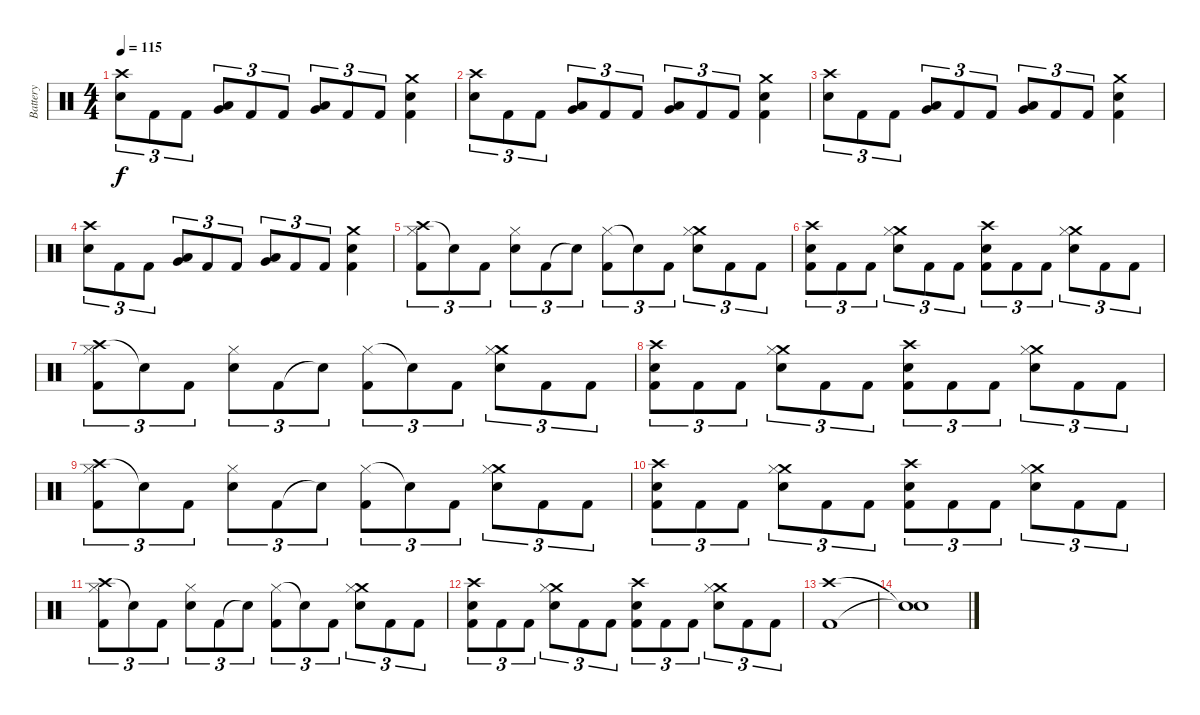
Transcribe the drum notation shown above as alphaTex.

\track ("Battery" "Battery") {instrument percussion}
\staff {score}
\articulation defaults
\ts (4 4)
\tempo 115
\clef neutral
\ks c
("Crash high (hit)" "Electric Snare (hit)").8{tu (3 2) dy f} "Kick (hit) 2".8{tu (3 2)} "Kick (hit) 2".8{tu (3 2)} ("Very Low Tom (hit)" "Low Tom (hit)").8{tu (3 2)} "Kick (hit) 2".8{tu (3 2)} "Kick (hit) 2".8{tu (3 2)} ("Very Low Tom (hit)" "Low Tom (hit)").8{tu (3 2)} "Kick (hit) 2".8{tu (3 2)} "Kick (hit) 2".8{tu (3 2)} ("Crash medium (hit)" "Electric Snare (hit)" "Kick (hit) 2").4 |
("Crash high (hit)" "Electric Snare (hit)").8{tu (3 2)} "Kick (hit) 2".8{tu (3 2)} "Kick (hit) 2".8{tu (3 2)} ("Very Low Tom (hit)" "Low Tom (hit)").8{tu (3 2)} "Kick (hit) 2".8{tu (3 2)} "Kick (hit) 2".8{tu (3 2)} ("Very Low Tom (hit)" "Low Tom (hit)").8{tu (3 2)} "Kick (hit) 2".8{tu (3 2)} "Kick (hit) 2".8{tu (3 2)} ("Crash medium (hit)" "Electric Snare (hit)" "Kick (hit) 2").4 |
("Crash high (hit)" "Electric Snare (hit)").8{tu (3 2)} "Kick (hit) 2".8{tu (3 2)} "Kick (hit) 2".8{tu (3 2)} ("Very Low Tom (hit)" "Low Tom (hit)").8{tu (3 2)} "Kick (hit) 2".8{tu (3 2)} "Kick (hit) 2".8{tu (3 2)} ("Very Low Tom (hit)" "Low Tom (hit)").8{tu (3 2)} "Kick (hit) 2".8{tu (3 2)} "Kick (hit) 2".8{tu (3 2)} ("Crash medium (hit)" "Electric Snare (hit)" "Kick (hit) 2").4 |
("Crash high (hit)" "Electric Snare (hit)").8{tu (3 2)} "Kick (hit) 2".8{tu (3 2)} "Kick (hit) 2".8{tu (3 2)} ("Very Low Tom (hit)" "Low Tom (hit)").8{tu (3 2)} "Kick (hit) 2".8{tu (3 2)} "Kick (hit) 2".8{tu (3 2)} ("Very Low Tom (hit)" "Low Tom (hit)").8{tu (3 2)} "Kick (hit) 2".8{tu (3 2)} "Kick (hit) 2".8{tu (3 2)} ("Crash medium (hit)" "Electric Snare (hit)" "Kick (hit) 2").4 |
("Crash high (hit)" "Hi-Hat (closed)" "Kick (hit) 2").8{tu (3 2)} "Snare (hit)"{t}.8{tu (3 2)} "Kick (hit) 2".8{tu (3 2)} ("Hi-Hat (closed)" "Electric Snare (hit)").8{tu (3 2)} "Kick (hit) 2".8{tu (3 2)} "Snare (hit)"{t}.8{tu (3 2)} ("Hi-Hat (closed)" "Kick (hit) 2").8{tu (3 2)} "Snare (hit)"{t}.8{tu (3 2)} "Kick (hit) 2".8{tu (3 2)} ("Crash medium (hit)" "Hi-Hat (closed)" "Electric Snare (hit)").8{tu (3 2)} "Kick (hit) 2".8{tu (3 2)} "Kick (hit) 2".8{tu (3 2)} |
("Crash high (hit)" "Electric Snare (hit)" "Kick (hit) 2").8{tu (3 2)} "Kick (hit) 2".8{tu (3 2)} "Kick (hit) 2".8{tu (3 2)} ("Crash medium (hit)" "Hi-Hat (closed)" "Electric Snare (hit)").8{tu (3 2)} "Kick (hit) 2".8{tu (3 2)} "Kick (hit) 2".8{tu (3 2)} ("Crash high (hit)" "Electric Snare (hit)" "Kick (hit) 2").8{tu (3 2)} "Kick (hit) 2".8{tu (3 2)} "Kick (hit) 2".8{tu (3 2)} ("Crash medium (hit)" "Hi-Hat (closed)" "Electric Snare (hit)").8{tu (3 2)} "Kick (hit) 2".8{tu (3 2)} "Kick (hit) 2".8{tu (3 2)} |
("Crash high (hit)" "Hi-Hat (closed)" "Kick (hit) 2").8{tu (3 2)} "Snare (hit)"{t}.8{tu (3 2)} "Kick (hit) 2".8{tu (3 2)} ("Hi-Hat (closed)" "Electric Snare (hit)").8{tu (3 2)} "Kick (hit) 2".8{tu (3 2)} "Snare (hit)"{t}.8{tu (3 2)} ("Hi-Hat (closed)" "Kick (hit) 2").8{tu (3 2)} "Snare (hit)"{t}.8{tu (3 2)} "Kick (hit) 2".8{tu (3 2)} ("Crash medium (hit)" "Hi-Hat (closed)" "Electric Snare (hit)").8{tu (3 2)} "Kick (hit) 2".8{tu (3 2)} "Kick (hit) 2".8{tu (3 2)} |
("Crash high (hit)" "Electric Snare (hit)" "Kick (hit) 2").8{tu (3 2)} "Kick (hit) 2".8{tu (3 2)} "Kick (hit) 2".8{tu (3 2)} ("Crash medium (hit)" "Hi-Hat (closed)" "Electric Snare (hit)").8{tu (3 2)} "Kick (hit) 2".8{tu (3 2)} "Kick (hit) 2".8{tu (3 2)} ("Crash high (hit)" "Electric Snare (hit)" "Kick (hit) 2").8{tu (3 2)} "Kick (hit) 2".8{tu (3 2)} "Kick (hit) 2".8{tu (3 2)} ("Crash medium (hit)" "Hi-Hat (closed)" "Electric Snare (hit)").8{tu (3 2)} "Kick (hit) 2".8{tu (3 2)} "Kick (hit) 2".8{tu (3 2)} |
("Crash high (hit)" "Hi-Hat (closed)" "Kick (hit) 2").8{tu (3 2)} "Snare (hit)"{t}.8{tu (3 2)} "Kick (hit) 2".8{tu (3 2)} ("Hi-Hat (closed)" "Electric Snare (hit)").8{tu (3 2)} "Kick (hit) 2".8{tu (3 2)} "Snare (hit)"{t}.8{tu (3 2)} ("Hi-Hat (closed)" "Kick (hit) 2").8{tu (3 2)} "Snare (hit)"{t}.8{tu (3 2)} "Kick (hit) 2".8{tu (3 2)} ("Crash medium (hit)" "Hi-Hat (closed)" "Electric Snare (hit)").8{tu (3 2)} "Kick (hit) 2".8{tu (3 2)} "Kick (hit) 2".8{tu (3 2)} |
("Crash high (hit)" "Electric Snare (hit)" "Kick (hit) 2").8{tu (3 2)} "Kick (hit) 2".8{tu (3 2)} "Kick (hit) 2".8{tu (3 2)} ("Crash medium (hit)" "Hi-Hat (closed)" "Electric Snare (hit)").8{tu (3 2)} "Kick (hit) 2".8{tu (3 2)} "Kick (hit) 2".8{tu (3 2)} ("Crash high (hit)" "Electric Snare (hit)" "Kick (hit) 2").8{tu (3 2)} "Kick (hit) 2".8{tu (3 2)} "Kick (hit) 2".8{tu (3 2)} ("Crash medium (hit)" "Hi-Hat (closed)" "Electric Snare (hit)").8{tu (3 2)} "Kick (hit) 2".8{tu (3 2)} "Kick (hit) 2".8{tu (3 2)} |
("Crash high (hit)" "Hi-Hat (closed)" "Kick (hit) 2").8{tu (3 2)} "Snare (hit)"{t}.8{tu (3 2)} "Kick (hit) 2".8{tu (3 2)} ("Hi-Hat (closed)" "Electric Snare (hit)").8{tu (3 2)} "Kick (hit) 2".8{tu (3 2)} "Snare (hit)"{t}.8{tu (3 2)} ("Hi-Hat (closed)" "Kick (hit) 2").8{tu (3 2)} "Snare (hit)"{t}.8{tu (3 2)} "Kick (hit) 2".8{tu (3 2)} ("Crash medium (hit)" "Hi-Hat (closed)" "Electric Snare (hit)").8{tu (3 2)} "Kick (hit) 2".8{tu (3 2)} "Kick (hit) 2".8{tu (3 2)} |
("Crash high (hit)" "Electric Snare (hit)" "Kick (hit) 2").8{tu (3 2)} "Kick (hit) 2".8{tu (3 2)} "Kick (hit) 2".8{tu (3 2)} ("Crash medium (hit)" "Hi-Hat (closed)" "Electric Snare (hit)").8{tu (3 2)} "Kick (hit) 2".8{tu (3 2)} "Kick (hit) 2".8{tu (3 2)} ("Crash high (hit)" "Electric Snare (hit)" "Kick (hit) 2").8{tu (3 2)} "Kick (hit) 2".8{tu (3 2)} "Kick (hit) 2".8{tu (3 2)} ("Crash medium (hit)" "Hi-Hat (closed)" "Electric Snare (hit)").8{tu (3 2)} "Kick (hit) 2".8{tu (3 2)} "Kick (hit) 2".8{tu (3 2)} |
("Crash high (hit)" "Kick (hit) 2").1 |
("Snare (hit)"{t} "Snare (hit)"{t}).1
